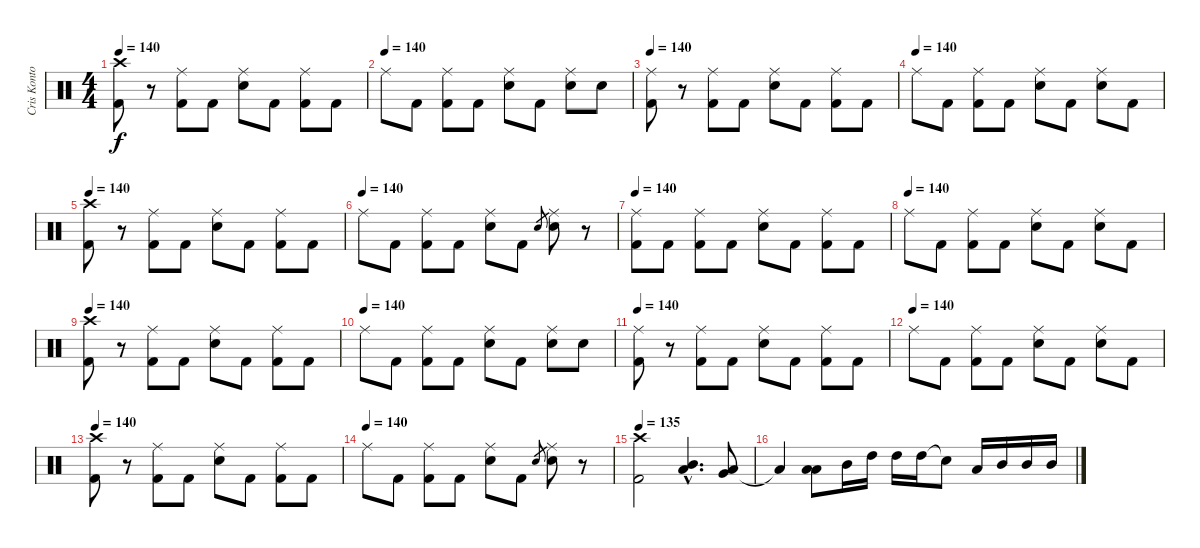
\track ("Cris Kontos" "Cris Konto") {instrument percussion}
\staff {score}
\articulation defaults
\ts (4 4)
\tempo 140
\clef neutral
\ks c
("Crash high (hit)" "Kick (hit) 2").8{dy f} r.8 ("Ride (middle)" "Kick (hit) 2").8 "Kick (hit) 2".8 ("Ride (middle)" "Electric Snare (hit)").8 "Kick (hit) 2".8 ("Ride (middle)" "Kick (hit) 2").8 "Kick (hit) 2".8 |
\tempo (140)
"Ride (middle)".8 "Kick (hit) 2".8 ("Ride (middle)" "Kick (hit) 2").8 "Kick (hit) 2".8 ("Ride (middle)" "Electric Snare (hit)").8 "Kick (hit) 2".8 ("Ride (middle)" "Electric Snare (hit)").8 "Electric Snare (hit)".8 |
\tempo 140
("Ride (middle)" "Kick (hit) 2").8 r.8 ("Ride (middle)" "Kick (hit) 2").8 "Kick (hit) 2".8 ("Ride (middle)" "Electric Snare (hit)").8 "Kick (hit) 2".8 ("Ride (middle)" "Kick (hit) 2").8 "Kick (hit) 2".8 |
\tempo (140)
"Ride (middle)".8 "Kick (hit) 2".8 ("Ride (middle)" "Kick (hit) 2").8 "Kick (hit) 2".8 ("Ride (middle)" "Electric Snare (hit)").8 "Kick (hit) 2".8 ("Ride (middle)" "Electric Snare (hit)").8 "Kick (hit) 2".8 |
\tempo 140
("Crash high (hit)" "Kick (hit) 2").8 r.8 ("Ride (middle)" "Kick (hit) 2").8 "Kick (hit) 2".8 ("Ride (middle)" "Electric Snare (hit)").8 "Kick (hit) 2".8 ("Ride (middle)" "Kick (hit) 2").8 "Kick (hit) 2".8 |
\tempo (140)
"Ride (middle)".8 "Kick (hit) 2".8 ("Ride (middle)" "Kick (hit) 2").8 "Kick (hit) 2".8 ("Ride (middle)" "Electric Snare (hit)").8 "Kick (hit) 2".8 "Electric Snare (hit)".8{gr} ("Ride (middle)" "Electric Snare (hit)").8 r.8 |
\tempo 140
("Ride (middle)" "Kick (hit) 2").8 "Kick (hit) 2".8 ("Ride (middle)" "Kick (hit) 2").8 "Kick (hit) 2".8 ("Ride (middle)" "Electric Snare (hit)").8 "Kick (hit) 2".8 ("Ride (middle)" "Kick (hit) 2").8 "Kick (hit) 2".8 |
\tempo (140)
"Ride (middle)".8 "Kick (hit) 2".8 ("Ride (middle)" "Kick (hit) 2").8 "Kick (hit) 2".8 ("Ride (middle)" "Electric Snare (hit)").8 "Kick (hit) 2".8 ("Ride (middle)" "Electric Snare (hit)").8 "Kick (hit) 2".8 |
\tempo 140
("Crash high (hit)" "Kick (hit) 2").8 r.8 ("Ride (middle)" "Kick (hit) 2").8 "Kick (hit) 2".8 ("Ride (middle)" "Electric Snare (hit)").8 "Kick (hit) 2".8 ("Ride (middle)" "Kick (hit) 2").8 "Kick (hit) 2".8 |
\tempo (140)
"Ride (middle)".8 "Kick (hit) 2".8 ("Ride (middle)" "Kick (hit) 2").8 "Kick (hit) 2".8 ("Ride (middle)" "Electric Snare (hit)").8 "Kick (hit) 2".8 ("Ride (middle)" "Electric Snare (hit)").8 "Electric Snare (hit)".8 |
\tempo 140
("Ride (middle)" "Kick (hit) 2").8 r.8 ("Ride (middle)" "Kick (hit) 2").8 "Kick (hit) 2".8 ("Ride (middle)" "Electric Snare (hit)").8 "Kick (hit) 2".8 ("Ride (middle)" "Kick (hit) 2").8 "Kick (hit) 2".8 |
\tempo (140)
"Ride (middle)".8 "Kick (hit) 2".8 ("Ride (middle)" "Kick (hit) 2").8 "Kick (hit) 2".8 ("Ride (middle)" "Electric Snare (hit)").8 "Kick (hit) 2".8 ("Ride (middle)" "Electric Snare (hit)").8 "Kick (hit) 2".8 |
\tempo 140
("Crash high (hit)" "Kick (hit) 2").8 r.8 ("Ride (middle)" "Kick (hit) 2").8 "Kick (hit) 2".8 ("Ride (middle)" "Electric Snare (hit)").8 "Kick (hit) 2".8 ("Ride (middle)" "Kick (hit) 2").8 "Kick (hit) 2".8 |
\tempo (140)
"Ride (middle)".8 "Kick (hit) 2".8 ("Ride (middle)" "Kick (hit) 2").8 "Kick (hit) 2".8 ("Ride (middle)" "Electric Snare (hit)").8 "Kick (hit) 2".8 "Electric Snare (hit)".8{gr} ("Ride (middle)" "Electric Snare (hit)").8 r.8 |
\tempo 135
("Crash high (hit)" "Kick (hit) 2").2 ("Low Tom (hit)"{hac} "Mid Tom (hit)"{hac}).4{d} ("Very Low Tom (hit)" "Low Tom (hit)").8 |
"Low Floor Tom (hit)"{t}.4 ("Low Floor Tom (hit)" "Low Floor Tom (hit)").8 "Mid Tom (hit)".16 "High Tom (hit)".16 "High Tom (hit)".16 "High Tom (hit)".16 "Snare (hit)"{t}.8 "Low Tom (hit)".16 "Mid Tom (hit)".16 "Mid Tom (hit)".16 "Mid Tom (hit)".16
